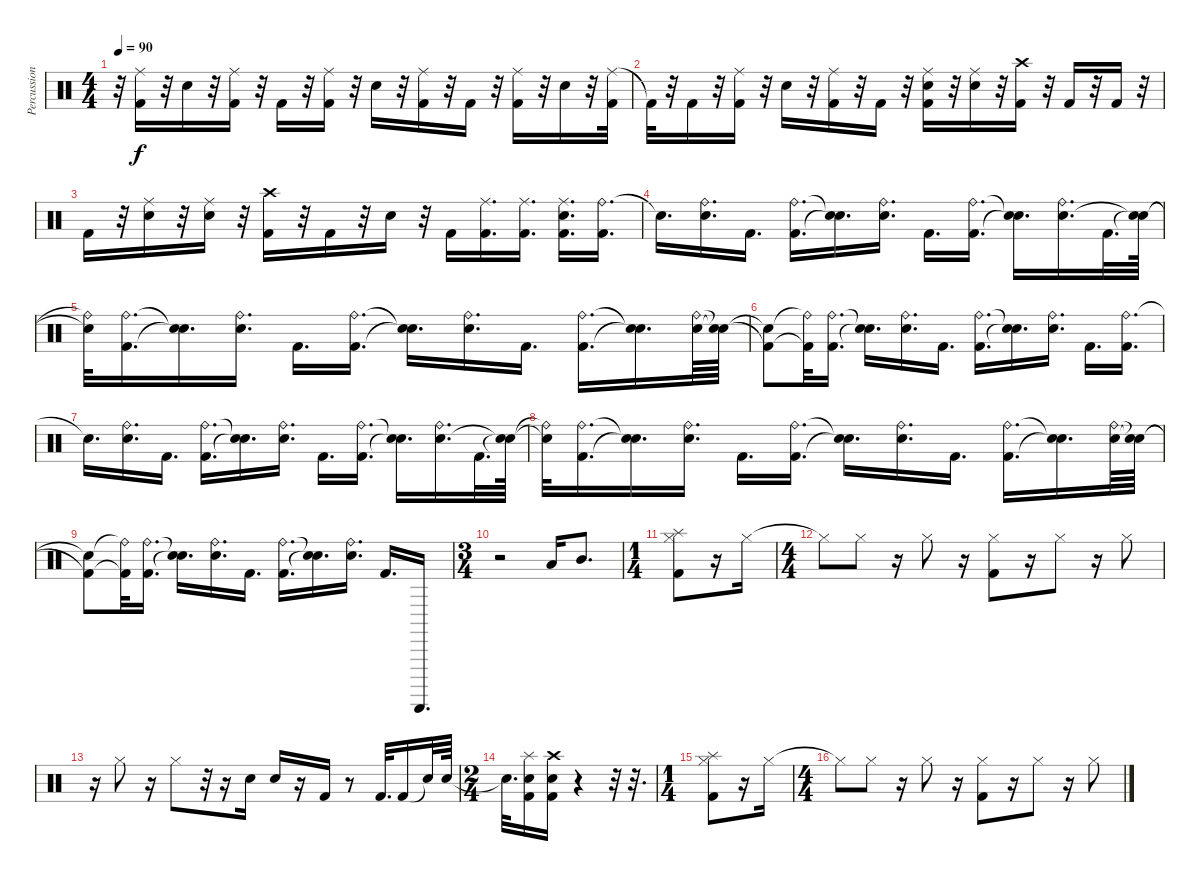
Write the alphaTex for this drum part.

\track ("Percussion" "Percussion") {instrument percussion}
\staff {score}
\articulation defaults
\ts (4 4)
\tempo 90
\clef neutral
\ks c
r.32{dy f} ("Ride (middle)" "Kick (hit) 2").16 r.32 "Electric Snare (hit)".16 r.32 ("Ride (middle)" "Kick (hit) 2").16 r.32 "Kick (hit) 2".16 r.32 ("Ride (middle)" "Kick (hit) 2").16 r.32 "Electric Snare (hit)".16 r.32 ("Ride (middle)" "Kick (hit) 2").16 r.32 "Kick (hit) 2".16 r.32 ("Ride (middle)" "Kick (hit) 2").16 r.32 "Electric Snare (hit)".16 r.32 ("Ride (middle)" "Kick (hit) 2").32 |
"Kick (hit) 2"{t}.32 r.32 "Kick (hit) 2".16 r.32 ("Ride (middle)" "Kick (hit) 2").16 r.32 "Electric Snare (hit)".16 r.32 ("Ride (middle)" "Kick (hit) 2").16 r.32 "Kick (hit) 2".16 r.32 ("Ride (middle)" "Kick (hit) 2" "Electric Snare (hit)").16 r.32 ("Ride (middle)" "Electric Snare (hit)").16 r.32 ("Crash high (hit)" "Kick (hit) 2").16 r.32 "Kick (hit) 2".16 r.32 "Kick (hit) 2".16 r.32 |
"Kick (hit) 2".16 r.32 ("Ride (middle)" "Electric Snare (hit)").16 r.32 ("Ride (middle)" "Electric Snare (hit)").16 r.32 ("Crash high (hit)" "Kick (hit) 2").16 r.32 "Kick (hit) 2".16 r.32 "Electric Snare (hit)".16 r.32 "Kick (hit) 2".16 ("Ride (middle)" "Kick (hit) 2").16{d} ("Ride (middle)" "Kick (hit) 2").16{d} ("Ride (middle)" "Kick (hit) 2" "Electric Snare (hit)").16{d} ("Ride (bell)" "Kick (hit) 2").16{d} |
"Electric Snare (hit)"{t}.16{d} ("Ride (bell)" "Electric Snare (hit)").16{d} "Kick (hit) 2".16{d} ("Ride (bell)" "Kick (hit) 2").16{d} ("Snare (hit)"{t} "Electric Snare (hit)"{t}).16{d} ("Ride (bell)" "Electric Snare (hit)").16{d} "Kick (hit) 2".16{d} ("Ride (bell)" "Kick (hit) 2").16{d} ("Snare (hit)"{t} "Snare (hit)"{t}).16{d} ("Ride (bell)" "Electric Snare (hit)").16{d} "Kick (hit) 2".32{d} ("Snare (hit)"{t} "Snare (hit)"{t}).64 |
("Ride (bell)"{t} "Snare (hit)"{t}).32 ("Ride (bell)" "Kick (hit) 2").16{d} ("Snare (hit)"{t} "Snare (hit)"{t}).16{d} ("Ride (bell)" "Electric Snare (hit)").16{d} "Kick (hit) 2".16{d} ("Ride (bell)" "Kick (hit) 2").16{d} ("Snare (hit)"{t} "Snare (hit)"{t}).16{d} ("Ride (bell)" "Electric Snare (hit)").16{d} "Kick (hit) 2".16{d} ("Ride (bell)" "Kick (hit) 2").16{d} ("Snare (hit)"{t} "Snare (hit)"{t}).16{d} ("Ride (bell)" "Electric Snare (hit)").64 ("Snare (hit)"{t} "Snare (hit)"{t}).64 |
("Snare (hit)"{t} "Kick (hit) 2"{t}).8 ("Ride (bell)"{t} "Kick (hit) 2"{t}).32 ("Ride (bell)" "Kick (hit) 2").16{d} ("Snare (hit)"{t} "Electric Snare (hit)"{t}).16{d} ("Ride (bell)" "Electric Snare (hit)").16{d} "Kick (hit) 2".16{d} ("Ride (bell)" "Kick (hit) 2").16{d} ("Snare (hit)"{t} "Snare (hit)"{t}).16{d} ("Ride (bell)" "Electric Snare (hit)").16{d} "Kick (hit) 2".16{d} ("Ride (bell)" "Kick (hit) 2").16{d} |
"Electric Snare (hit)"{t}.16{d} ("Ride (bell)" "Electric Snare (hit)").16{d} "Kick (hit) 2".16{d} ("Ride (bell)" "Kick (hit) 2").16{d} ("Snare (hit)"{t} "Electric Snare (hit)"{t}).16{d} ("Ride (bell)" "Electric Snare (hit)").16{d} "Kick (hit) 2".16{d} ("Ride (bell)" "Kick (hit) 2").16{d} ("Snare (hit)"{t} "Snare (hit)"{t}).16{d} ("Ride (bell)" "Electric Snare (hit)").16{d} "Kick (hit) 2".32{d} ("Snare (hit)"{t} "Snare (hit)"{t}).64 |
("Ride (bell)"{t} "Snare (hit)"{t}).32 ("Ride (bell)" "Kick (hit) 2").16{d} ("Snare (hit)"{t} "Snare (hit)"{t}).16{d} ("Ride (bell)" "Electric Snare (hit)").16{d} "Kick (hit) 2".16{d} ("Ride (bell)" "Kick (hit) 2").16{d} ("Snare (hit)"{t} "Snare (hit)"{t}).16{d} ("Ride (bell)" "Electric Snare (hit)").16{d} "Kick (hit) 2".16{d} ("Ride (bell)" "Kick (hit) 2").16{d} ("Snare (hit)"{t} "Snare (hit)"{t}).16{d} ("Ride (bell)" "Electric Snare (hit)").64 ("Snare (hit)"{t} "Snare (hit)"{t}).64 |
("Snare (hit)"{t} "Kick (hit) 2"{t}).8 ("Ride (bell)"{t} "Kick (hit) 2"{t}).32 ("Ride (bell)" "Kick (hit) 2").16{d} ("Snare (hit)"{t} "Electric Snare (hit)"{t}).16{d} ("Ride (bell)" "Electric Snare (hit)").16{d} "Kick (hit) 2".16{d} ("Ride (bell)" "Kick (hit) 2").16{d} ("Snare (hit)"{t} "Snare (hit)"{t}).16{d} ("Ride (bell)" "Electric Snare (hit)").16{d} "Kick (hit) 2".16{d} "Guiro (scrap-return)".16{d} |
\ts (3 4)
r.2 "Low Tom (hit)".16 "Mid Tom (hit)".8{d} |
\ts (1 4)
("Splash (hit)" "Hi-Hat (closed)" "Kick (hit) 2").8 r.16 "Hi-Hat (closed)".16 |
\ts (4 4)
"Hi-Hat (closed)"{t}.8 "Hi-Hat (closed)".8 r.16 "Hi-Hat (closed)".8 r.16 ("Hi-Hat (closed)" "Kick (hit) 2").8 r.16 "Hi-Hat (closed)".8 r.16 "Hi-Hat (closed)".8 |
r.16 "Hi-Hat (closed)".8 r.16 "Hi-Hat (closed)".8 r.32 r.16 "Snare (hit) 2".16 "Snare (hit) 2".16 r.16 "Kick (hit) 2".16 r.8 "Kick (hit) 2".32{d} "Kick (hit) 2".16 "Snare (hit)"{t}.32 "Electric Snare (hit)".64 |
\ts (2 4)
"Snare (hit)"{t}.32{d} ("Splash (hit)" "Electric Snare (hit)" "Kick (hit) 2").16 ("Crash high (hit)" "Electric Snare (hit)" "Kick (hit) 2").16 r.4 r.32 r.32{d} |
\ts (1 4)
("Splash (hit)" "Hi-Hat (closed)" "Kick (hit) 2").8 r.16 "Hi-Hat (closed)".16 |
\ts (4 4)
"Hi-Hat (closed)"{t}.8 "Hi-Hat (closed)".8 r.16 "Hi-Hat (closed)".8 r.16 ("Hi-Hat (closed)" "Kick (hit) 2").8 r.16 "Hi-Hat (closed)".8 r.16 "Hi-Hat (closed)".8
